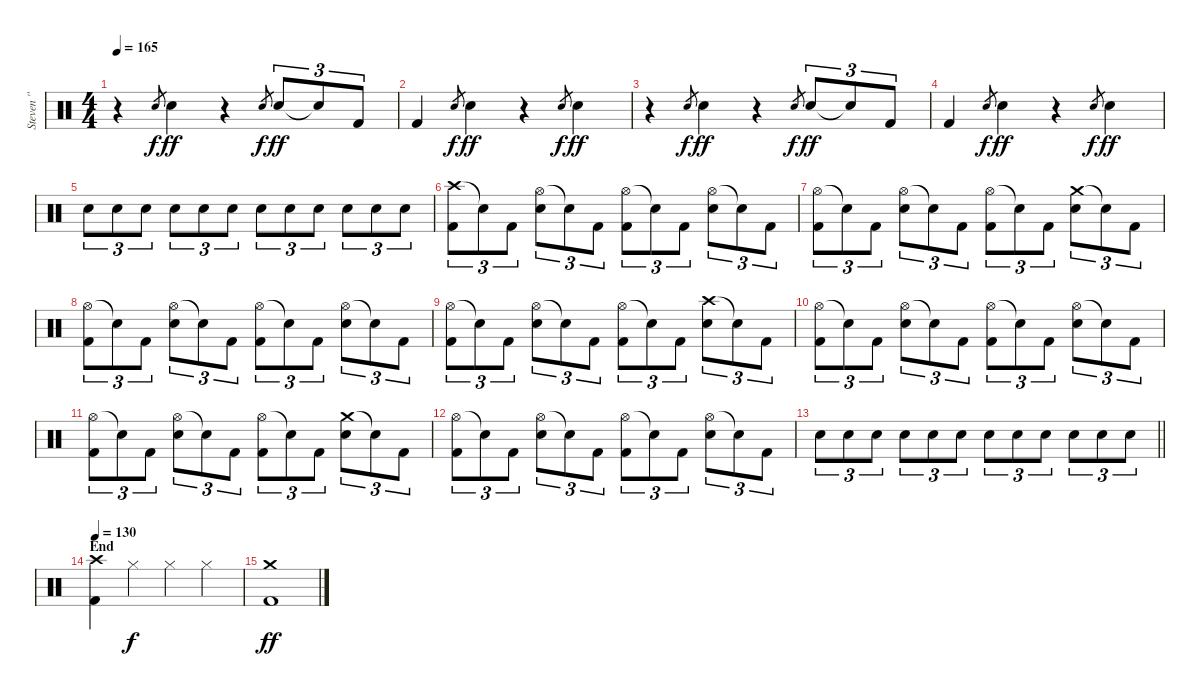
\track ("Steven '' Popcorn '' Adler" "Steven '' ") {instrument percussion}
\staff {score}
\articulation defaults
\ts (4 4)
\tempo 165
\clef neutral
\ks c
r.4{dy ff} "Snare (hit) 2".8{gr dy f} "Snare (hit) 2".4{dy ff} r.4 "Snare (hit) 2".8{gr dy f} "Snare (hit) 2".8{tu (3 2) dy ff} "Snare (hit)"{t}.8{tu (3 2)} "Kick (hit) 2".8{tu (3 2)} |
"Kick (hit) 2".4 "Snare (hit) 2".8{gr dy f} "Snare (hit) 2".4{dy ff} r.4 "Snare (hit) 2".8{gr dy f} "Snare (hit) 2".4{dy ff} |
r.4 "Snare (hit) 2".8{gr dy f} "Snare (hit) 2".4{dy ff} r.4 "Snare (hit) 2".8{gr dy f} "Snare (hit) 2".8{tu (3 2) dy ff} "Snare (hit)"{t}.8{tu (3 2)} "Kick (hit) 2".8{tu (3 2)} |
"Kick (hit) 2".4 "Snare (hit) 2".8{gr dy f} "Snare (hit) 2".4{dy ff} r.4 "Snare (hit) 2".8{gr dy f} "Snare (hit) 2".4{dy ff} |
"Snare (hit) 2".8{tu (3 2)} "Snare (hit) 2".8{tu (3 2)} "Snare (hit) 2".8{tu (3 2)} "Snare (hit) 2".8{tu (3 2)} "Snare (hit) 2".8{tu (3 2)} "Snare (hit) 2".8{tu (3 2)} "Snare (hit) 2".8{tu (3 2)} "Snare (hit) 2".8{tu (3 2)} "Snare (hit) 2".8{tu (3 2)} "Snare (hit) 2".8{tu (3 2)} "Snare (hit) 2".8{tu (3 2)} "Snare (hit) 2".8{tu (3 2)} |
("Crash high (hit)" "Kick (hit) 2").8{tu (3 2)} "Snare (hit)"{t}.8{tu (3 2)} "Kick (hit) 2".8{tu (3 2)} ("Hi-Hat (open)" "Snare (hit) 2").8{tu (3 2)} "Snare (hit)"{t}.8{tu (3 2)} "Kick (hit) 2".8{tu (3 2)} ("Hi-Hat (open)" "Kick (hit) 2").8{tu (3 2)} "Snare (hit)"{t}.8{tu (3 2)} "Kick (hit) 2".8{tu (3 2)} ("Hi-Hat (open)" "Snare (hit) 2").8{tu (3 2)} "Snare (hit)"{t}.8{tu (3 2)} "Kick (hit) 2".8{tu (3 2)} |
("Hi-Hat (open)" "Kick (hit) 2").8{tu (3 2)} "Snare (hit)"{t}.8{tu (3 2)} "Kick (hit) 2".8{tu (3 2)} ("Hi-Hat (open)" "Snare (hit) 2").8{tu (3 2)} "Snare (hit)"{t}.8{tu (3 2)} "Kick (hit) 2".8{tu (3 2)} ("Hi-Hat (open)" "Kick (hit) 2").8{tu (3 2)} "Snare (hit)"{t}.8{tu (3 2)} "Kick (hit) 2".8{tu (3 2)} ("Crash medium (hit)" "Snare (hit) 2").8{tu (3 2)} "Snare (hit)"{t}.8{tu (3 2)} "Kick (hit) 2".8{tu (3 2)} |
("Hi-Hat (open)" "Kick (hit) 2").8{tu (3 2)} "Snare (hit)"{t}.8{tu (3 2)} "Kick (hit) 2".8{tu (3 2)} ("Hi-Hat (open)" "Snare (hit) 2").8{tu (3 2)} "Snare (hit)"{t}.8{tu (3 2)} "Kick (hit) 2".8{tu (3 2)} ("Hi-Hat (open)" "Kick (hit) 2").8{tu (3 2)} "Snare (hit)"{t}.8{tu (3 2)} "Kick (hit) 2".8{tu (3 2)} ("Hi-Hat (open)" "Snare (hit) 2").8{tu (3 2)} "Snare (hit)"{t}.8{tu (3 2)} "Kick (hit) 2".8{tu (3 2)} |
("Hi-Hat (open)" "Kick (hit) 2").8{tu (3 2)} "Snare (hit)"{t}.8{tu (3 2)} "Kick (hit) 2".8{tu (3 2)} ("Hi-Hat (open)" "Snare (hit) 2").8{tu (3 2)} "Snare (hit)"{t}.8{tu (3 2)} "Kick (hit) 2".8{tu (3 2)} ("Hi-Hat (open)" "Kick (hit) 2").8{tu (3 2)} "Snare (hit)"{t}.8{tu (3 2)} "Kick (hit) 2".8{tu (3 2)} ("Crash high (hit)" "Snare (hit) 2").8{tu (3 2)} "Snare (hit)"{t}.8{tu (3 2)} "Kick (hit) 2".8{tu (3 2)} |
("Hi-Hat (open)" "Kick (hit) 2").8{tu (3 2)} "Snare (hit)"{t}.8{tu (3 2)} "Kick (hit) 2".8{tu (3 2)} ("Hi-Hat (open)" "Snare (hit) 2").8{tu (3 2)} "Snare (hit)"{t}.8{tu (3 2)} "Kick (hit) 2".8{tu (3 2)} ("Hi-Hat (open)" "Kick (hit) 2").8{tu (3 2)} "Snare (hit)"{t}.8{tu (3 2)} "Kick (hit) 2".8{tu (3 2)} ("Hi-Hat (open)" "Snare (hit) 2").8{tu (3 2)} "Snare (hit)"{t}.8{tu (3 2)} "Kick (hit) 2".8{tu (3 2)} |
("Hi-Hat (open)" "Kick (hit) 2").8{tu (3 2)} "Snare (hit)"{t}.8{tu (3 2)} "Kick (hit) 2".8{tu (3 2)} ("Hi-Hat (open)" "Snare (hit) 2").8{tu (3 2)} "Snare (hit)"{t}.8{tu (3 2)} "Kick (hit) 2".8{tu (3 2)} ("Hi-Hat (open)" "Kick (hit) 2").8{tu (3 2)} "Snare (hit)"{t}.8{tu (3 2)} "Kick (hit) 2".8{tu (3 2)} ("Crash medium (hit)" "Snare (hit) 2").8{tu (3 2)} "Snare (hit)"{t}.8{tu (3 2)} "Kick (hit) 2".8{tu (3 2)} |
("Hi-Hat (open)" "Kick (hit) 2").8{tu (3 2)} "Snare (hit)"{t}.8{tu (3 2)} "Kick (hit) 2".8{tu (3 2)} ("Hi-Hat (open)" "Snare (hit) 2").8{tu (3 2)} "Snare (hit)"{t}.8{tu (3 2)} "Kick (hit) 2".8{tu (3 2)} ("Hi-Hat (open)" "Kick (hit) 2").8{tu (3 2)} "Snare (hit)"{t}.8{tu (3 2)} "Kick (hit) 2".8{tu (3 2)} ("Hi-Hat (open)" "Snare (hit) 2").8{tu (3 2)} "Snare (hit)"{t}.8{tu (3 2)} "Kick (hit) 2".8{tu (3 2)} |
\barLineRight lightlight "Snare (hit) 2".8{tu (3 2)} "Snare (hit) 2".8{tu (3 2)} "Snare (hit) 2".8{tu (3 2)} "Snare (hit) 2".8{tu (3 2)} "Snare (hit) 2".8{tu (3 2)} "Snare (hit) 2".8{tu (3 2)} "Snare (hit) 2".8{tu (3 2)} "Snare (hit) 2".8{tu (3 2)} "Snare (hit) 2".8{tu (3 2)} "Snare (hit) 2".8{tu (3 2)} "Snare (hit) 2".8{tu (3 2)} "Snare (hit) 2".8{tu (3 2)}
|
\section ("" "End")
\tempo 130
("Crash high (hit)" "Kick (hit) 2").4 "Hi-Hat (closed)".4{dy f} "Hi-Hat (closed)".4 "Hi-Hat (closed)".4 |
("Crash medium (hit)" "Kick (hit) 2").1{dy ff}
